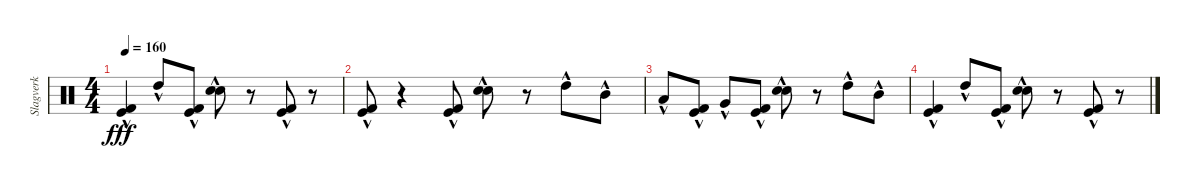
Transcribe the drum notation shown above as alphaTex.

\track ("Slagverk" "Slagverk") {instrument percussion}
\staff {score}
\articulation defaults
\ts (4 4)
\tempo 160
\clef neutral
\ks c
("Kick (hit)"{hac} "Kick (hit) 2"{hac}).4{dy fff} "High Tom (hit)"{hac}.8 ("Kick (hit)"{hac} "Kick (hit) 2"{hac}).8 ("Electric Snare (hit)"{hac} "Snare (hit) 2"{hac}).8 r.8 ("Kick (hit)"{hac} "Kick (hit) 2"{hac}).8 r.8 |
("Kick (hit)"{hac} "Kick (hit) 2"{hac}).8 r.4 ("Kick (hit)"{hac} "Kick (hit) 2"{hac}).8 ("Electric Snare (hit)"{hac} "Snare (hit) 2"{hac}).8 r.8 "High Tom (hit)"{hac}.8 "Mid Tom (hit)"{hac}.8 |
"Low Tom (hit)"{hac}.8 ("Kick (hit)"{hac} "Kick (hit) 2"{hac}).8 "Very Low Tom (hit)"{hac}.8 ("Kick (hit)"{hac} "Kick (hit) 2"{hac}).8 ("Electric Snare (hit)"{hac} "Snare (hit) 2"{hac}).8 r.8 "High Tom (hit)"{hac}.8 "Mid Tom (hit)"{hac}.8 |
("Kick (hit)"{hac} "Kick (hit) 2"{hac}).4 "High Tom (hit)"{hac}.8 ("Kick (hit)"{hac} "Kick (hit) 2"{hac}).8 ("Electric Snare (hit)"{hac} "Snare (hit) 2"{hac}).8 r.8 ("Kick (hit)"{hac} "Kick (hit) 2"{hac}).8 r.8
